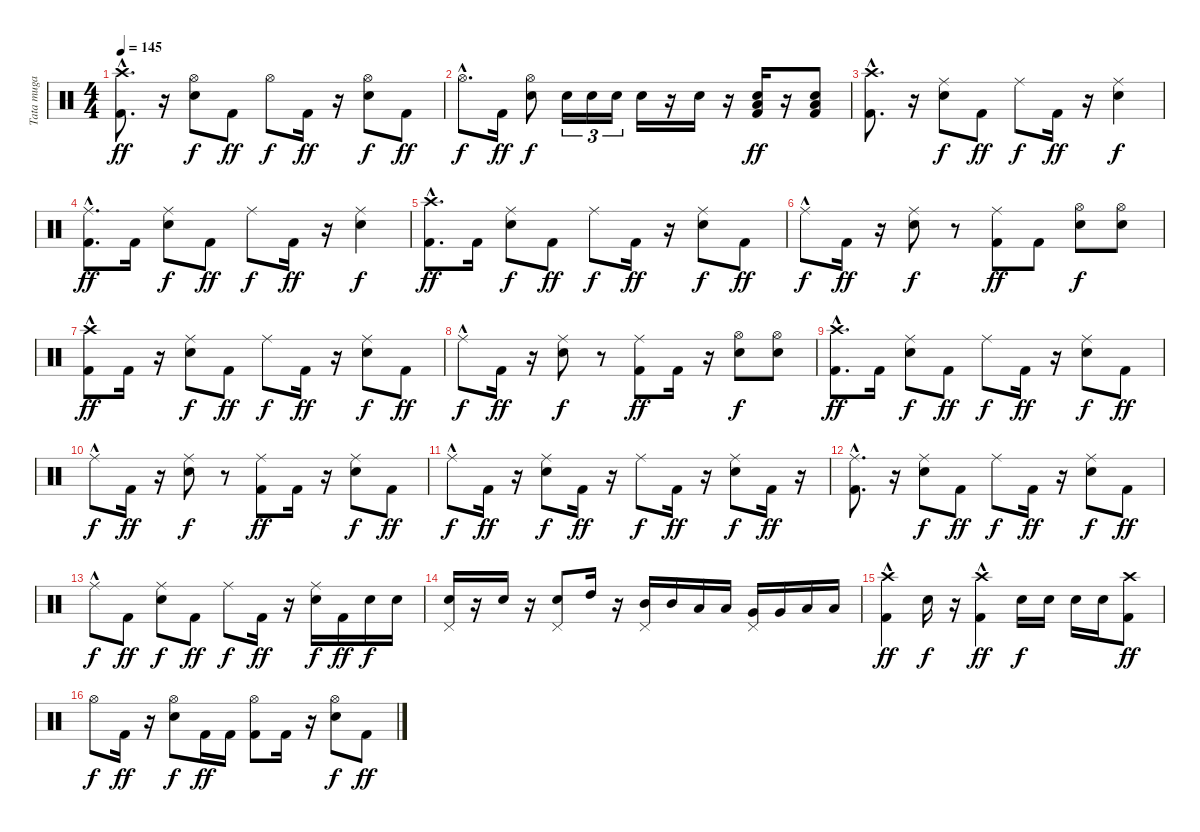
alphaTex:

\track ("Tata muga" "Tata muga") {instrument percussion}
\staff {score}
\articulation defaults
\ts (4 4)
\tempo 145
\clef neutral
\ks c
("Crash high (hit)"{hac} "Kick (hit) 2"{hac}).8{d dy ff} r.16 ("Hi-Hat (open)" "Electric Snare (hit)").8{dy f} "Kick (hit) 2".8{dy ff} "Hi-Hat (open)".8{dy f} "Kick (hit) 2".16{dy ff} r.16 ("Hi-Hat (open)" "Electric Snare (hit)").8{dy f} "Kick (hit) 2".8{dy ff} |
"Hi-Hat (open)"{hac}.8{d dy f} "Kick (hit) 2".16{dy ff} ("Hi-Hat (open)" "Electric Snare (hit)").8{dy f} "Electric Snare (hit)".16{tu (3 2)} "Electric Snare (hit)".16{tu (3 2)} "Electric Snare (hit)".16{tu (3 2)} "Electric Snare (hit)".16 r.16 "Electric Snare (hit)".16 r.16 ("Low Floor Tom (hit)" "Electric Snare (hit)" "Kick (hit) 2").16{dy ff} r.16 ("Low Floor Tom (hit)" "Electric Snare (hit)" "Kick (hit) 2").8 |
("Crash high (hit)"{hac} "Kick (hit) 2"{hac}).8{d} r.16 ("Ride (middle)" "Electric Snare (hit)").8{dy f} "Kick (hit) 2".8{dy ff} "Ride (middle)".8{dy f} "Kick (hit) 2".16{dy ff} r.16 ("Ride (middle)" "Electric Snare (hit)").4{dy f} |
("Ride (middle)"{hac} "Kick (hit) 2"{hac}).8{d dy ff} "Kick (hit) 2".16 ("Ride (middle)" "Electric Snare (hit)").8{dy f} "Kick (hit) 2".8{dy ff} "Ride (middle)".8{dy f} "Kick (hit) 2".16{dy ff} r.16 ("Ride (middle)" "Electric Snare (hit)").4{dy f} |
("Crash high (hit)"{hac} "Kick (hit) 2"{hac}).8{d dy ff} "Kick (hit) 2".16 ("Ride (middle)" "Electric Snare (hit)").8{dy f} "Kick (hit) 2".8{dy ff} "Ride (middle)".8{dy f} "Kick (hit) 2".16{dy ff} r.16 ("Ride (middle)" "Electric Snare (hit)").8{dy f} "Kick (hit) 2".8{dy ff} |
"Ride (middle)"{hac}.8{dy f} "Kick (hit) 2".16{dy ff} r.16 ("Ride (middle)" "Electric Snare (hit)").8{dy f} r.8 ("Ride (middle)" "Kick (hit) 2").8{dy ff} "Kick (hit) 2".8 ("Hi-Hat (open)" "Electric Snare (hit)").8{dy f} ("Electric Snare (hit)" "Hi-Hat (open)").8 |
("Crash high (hit)"{hac} "Kick (hit) 2").8{dy ff} "Kick (hit) 2".16 r.16 ("Ride (middle)" "Electric Snare (hit)").8{dy f} "Kick (hit) 2".8{dy ff} "Ride (middle)".8{dy f} "Kick (hit) 2".16{dy ff} r.16 ("Ride (middle)" "Electric Snare (hit)").8{dy f} "Kick (hit) 2".8{dy ff} |
"Ride (middle)"{hac}.8{dy f} "Kick (hit) 2".16{dy ff} r.16 ("Ride (middle)" "Electric Snare (hit)").8{dy f} r.8 ("Ride (middle)" "Kick (hit) 2").8{dy ff} "Kick (hit) 2".16 r.16 ("Hi-Hat (open)" "Electric Snare (hit)").8{dy f} ("Hi-Hat (open)" "Electric Snare (hit)").8 |
("Crash high (hit)"{hac} "Kick (hit) 2"{hac}).8{d dy ff} "Kick (hit) 2".16 ("Ride (middle)" "Electric Snare (hit)").8{dy f} "Kick (hit) 2".8{dy ff} "Ride (middle)".8{dy f} "Kick (hit) 2".16{dy ff} r.16 ("Ride (middle)" "Electric Snare (hit)").8{dy f} "Kick (hit) 2".8{dy ff} |
"Ride (middle)"{hac}.8{dy f} "Kick (hit) 2".16{dy ff} r.16 ("Ride (middle)" "Electric Snare (hit)").8{dy f} r.8 ("Ride (middle)" "Kick (hit) 2").8{dy ff} "Kick (hit) 2".16 r.16 ("Ride (middle)" "Electric Snare (hit)").8{dy f} "Kick (hit) 2".8{dy ff} |
"Ride (middle)"{hac}.8{dy f} "Kick (hit) 2".16{dy ff} r.16 ("Ride (middle)" "Electric Snare (hit)").8{dy f} "Kick (hit) 2".16{dy ff} r.16 "Ride (middle)".8{dy f} "Kick (hit) 2".16{dy ff} r.16 ("Ride (middle)" "Electric Snare (hit)").8{dy f} "Kick (hit) 2".16{dy ff} r.16 |
("Ride (middle)"{hac} "Kick (hit) 2").8{d} r.16 ("Ride (middle)" "Electric Snare (hit)").8{dy f} "Kick (hit) 2".8{dy ff} "Ride (middle)".8{dy f} "Kick (hit) 2".16{dy ff} r.16 ("Ride (middle)" "Electric Snare (hit)").8{dy f} "Kick (hit) 2".8{dy ff} |
"Ride (middle)"{hac}.8{dy f} "Kick (hit) 2".8{dy ff} ("Ride (middle)" "Electric Snare (hit)").8{dy f} "Kick (hit) 2".8{dy ff} "Ride (middle)".8{dy f} "Kick (hit) 2".16{dy ff} r.16 ("Ride (middle)" "Electric Snare (hit)").16{dy f} "Kick (hit) 2".16{dy ff} "Electric Snare (hit)".16{dy f} "Electric Snare (hit)".16 |
("Electric Snare (hit)" "Pedal Hi-Hat (hit)").16 r.16 "Electric Snare (hit)".16 r.16 ("Pedal Hi-Hat (hit)" "Electric Snare (hit)").8 "High Tom (hit)".16 r.16 ("Mid Tom (hit)" "Pedal Hi-Hat (hit)").16 "Mid Tom (hit)".16 "Low Tom (hit)".16 "Low Tom (hit)".16 ("Pedal Hi-Hat (hit)" "Very Low Tom (hit)").16 "Very Low Tom (hit)".16 "Low Floor Tom (hit)".16 "Low Floor Tom (hit)".16 |
("Crash high (hit)"{hac} "Kick (hit) 2"{hac}).4{dy ff} "Electric Snare (hit)".16{dy f} r.16 ("Crash high (hit)"{hac} "Kick (hit) 2"{hac}).4{dy ff} "Electric Snare (hit)".16{dy f} "Electric Snare (hit)".16 "Electric Snare (hit)".16 "Electric Snare (hit)".16 ("Crash high (hit)" "Kick (hit) 2").8{dy ff} |
"Hi-Hat (open)".8{dy f} "Kick (hit) 2".16{dy ff} r.16 ("Hi-Hat (open)" "Electric Snare (hit)").8{dy f} "Kick (hit) 2".16{dy ff} "Kick (hit) 2".16 ("Hi-Hat (open)" "Kick (hit) 2").8 "Kick (hit) 2".16 r.16 ("Hi-Hat (open)" "Electric Snare (hit)").8{dy f} "Kick (hit) 2".8{dy ff}
